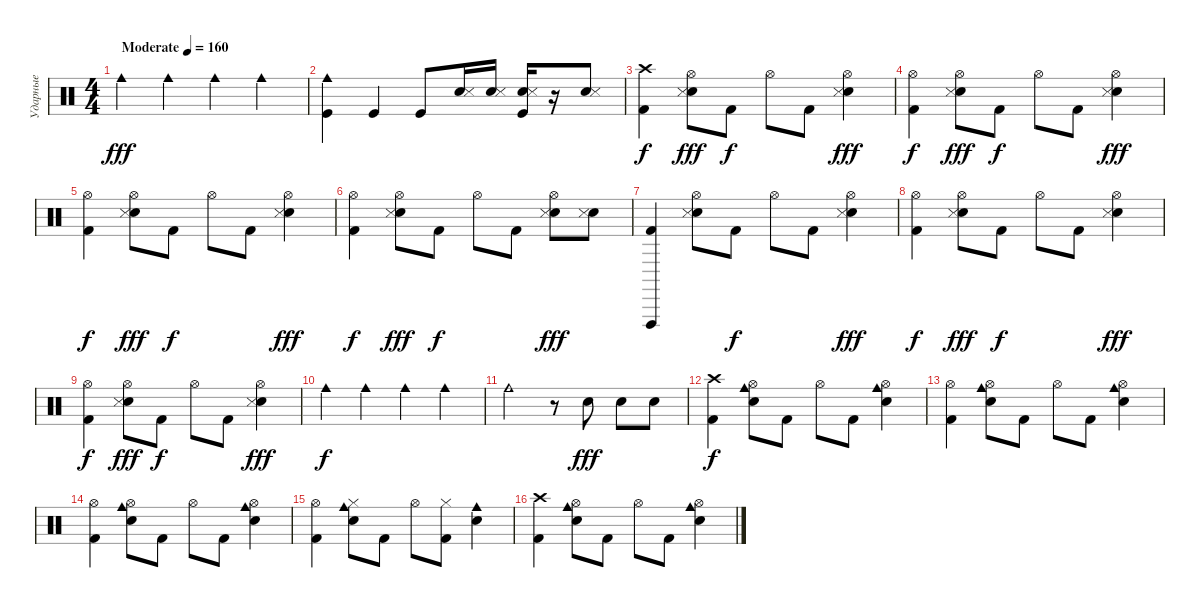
\track ("Ударные" "Ударные") {instrument percussion}
\staff {score}
\articulation defaults
\ts (4 4)
\tempo (160 "Moderate")
\clef neutral
\ks c "Cowbell medium (hit)".4{dy fff} "Cowbell medium (hit)".4 "Cowbell medium (hit)".4 "Cowbell medium (hit)".4
|
("Cowbell medium (hit)" "Kick (hit)").4 "Kick (hit)".4 "Kick (hit)".8 ("Electric Snare (hit)" "Snare (side stick) 3").16 ("Electric Snare (hit)" "Snare (side stick) 3").16 ("Electric Snare (hit)" "Snare (side stick) 3" "Kick (hit)").16 r.16 ("Electric Snare (hit)" "Snare (side stick) 3").8 |
("Crash high (hit)" "Kick (hit) 2").4{dy f} ("Hi-Hat (open)" "Electric Snare (hit)" "Snare (side stick) 3").8{dy fff} "Kick (hit) 2".8{dy f} "Hi-Hat (open)".8 "Kick (hit) 2".8 ("Hi-Hat (open)" "Electric Snare (hit)" "Snare (side stick) 3").4{dy fff} |
("Hi-Hat (open)" "Kick (hit) 2").4{dy f} ("Hi-Hat (open)" "Electric Snare (hit)" "Snare (side stick) 3").8{dy fff} "Kick (hit) 2".8{dy f} "Hi-Hat (open)".8 "Kick (hit) 2".8 ("Hi-Hat (open)" "Electric Snare (hit)" "Snare (side stick) 3").4{dy fff} |
("Hi-Hat (open)" "Kick (hit) 2").4{dy f} ("Hi-Hat (open)" "Electric Snare (hit)" "Snare (side stick) 3").8{dy fff} "Kick (hit) 2".8{dy f} "Hi-Hat (open)".8 "Kick (hit) 2".8 ("Hi-Hat (open)" "Electric Snare (hit)" "Snare (side stick) 3").4{dy fff} |
("Hi-Hat (open)" "Kick (hit) 2").4{dy f} ("Hi-Hat (open)" "Electric Snare (hit)" "Snare (side stick) 3").8{dy fff} "Kick (hit) 2".8{dy f} "Hi-Hat (open)".8 "Kick (hit) 2".8 ("Hi-Hat (open)" "Electric Snare (hit)" "Snare (side stick) 3").8{dy fff} ("Electric Snare (hit)" "Snare (side stick) 3").8 |
("Vibraslap (hit)" "Kick (hit) 2").4 ("Hi-Hat (open)" "Electric Snare (hit)" "Snare (side stick) 3").8 "Kick (hit) 2".8{dy f} "Hi-Hat (open)".8 "Kick (hit) 2".8 ("Hi-Hat (open)" "Electric Snare (hit)" "Snare (side stick) 3").4{dy fff} |
("Hi-Hat (open)" "Kick (hit) 2").4{dy f} ("Hi-Hat (open)" "Electric Snare (hit)" "Snare (side stick) 3").8{dy fff} "Kick (hit) 2".8{dy f} "Hi-Hat (open)".8 "Kick (hit) 2".8 ("Hi-Hat (open)" "Electric Snare (hit)" "Snare (side stick) 3").4{dy fff} |
("Hi-Hat (open)" "Kick (hit) 2").4{dy f} ("Hi-Hat (open)" "Electric Snare (hit)" "Snare (side stick) 3").8{dy fff} "Kick (hit) 2".8{dy f} "Hi-Hat (open)".8 "Kick (hit) 2".8 ("Hi-Hat (open)" "Electric Snare (hit)" "Snare (side stick) 3").4{dy fff} |
"Cowbell medium (hit)".4{dy f} "Cowbell medium (hit)".4 "Cowbell medium (hit)".4 "Cowbell medium (hit)".4 |
"Cowbell medium (hit)".2 r.8 "Electric Snare (hit)".8{dy fff} "Electric Snare (hit)".8 "Electric Snare (hit)".8 |
("Crash high (hit)" "Kick (hit) 2").4{dy f} ("Hi-Hat (open)" "Electric Snare (hit)" "Cowbell medium (hit)").8 "Kick (hit) 2".8 "Hi-Hat (open)".8 "Kick (hit) 2".8 ("Hi-Hat (open)" "Electric Snare (hit)" "Cowbell medium (hit)").4 |
("Hi-Hat (open)" "Kick (hit) 2").4 ("Hi-Hat (open)" "Electric Snare (hit)" "Cowbell medium (hit)").8 "Kick (hit) 2".8 "Hi-Hat (open)".8 "Kick (hit) 2".8 ("Hi-Hat (open)" "Electric Snare (hit)" "Cowbell medium (hit)").4 |
("Hi-Hat (open)" "Kick (hit) 2").4 ("Hi-Hat (open)" "Electric Snare (hit)" "Cowbell medium (hit)").8 "Kick (hit) 2".8 "Hi-Hat (open)".8 "Kick (hit) 2".8 ("Hi-Hat (open)" "Electric Snare (hit)" "Cowbell medium (hit)").4 |
("Hi-Hat (open)" "Kick (hit) 2").4 ("Hi-Hat (closed)" "Electric Snare (hit)" "Cowbell medium (hit)").8 "Kick (hit) 2".8 "Hi-Hat (open)".8 ("Hi-Hat (closed)" "Kick (hit) 2").8 ("Electric Snare (hit)" "Cowbell medium (hit)").4 |
("Crash high (hit)" "Kick (hit) 2").4 ("Hi-Hat (open)" "Electric Snare (hit)" "Cowbell medium (hit)").8 "Kick (hit) 2".8 "Hi-Hat (open)".8 "Kick (hit) 2".8 ("Hi-Hat (open)" "Electric Snare (hit)" "Cowbell medium (hit)").4
